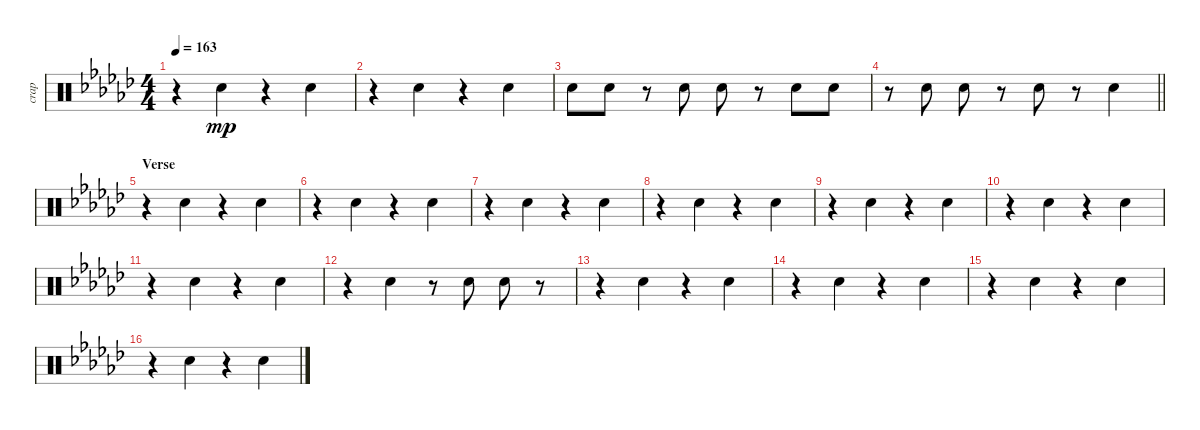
\track ("crap" "crap") {mute instrument percussion}
\staff {score}
\articulation defaults
\ts (4 4)
\tempo 163
\clef neutral
\ks gb
r.4{dy mp} "Hand Clap (hit)".4 r.4 "Hand Clap (hit)".4 |
r.4 "Hand Clap (hit)".4 r.4 "Hand Clap (hit)".4 |
"Hand Clap (hit)".8 "Hand Clap (hit)".8 r.8 "Hand Clap (hit)".8 "Hand Clap (hit)".8 r.8 "Hand Clap (hit)".8 "Hand Clap (hit)".8 |
\barLineRight lightlight
r.8 "Hand Clap (hit)".8 "Hand Clap (hit)".8 r.8 "Hand Clap (hit)".8 r.8 "Hand Clap (hit)".4 |
\section ("" "Verse")
r.4 "Hand Clap (hit)".4 r.4 "Hand Clap (hit)".4 |
r.4 "Hand Clap (hit)".4 r.4 "Hand Clap (hit)".4 |
r.4 "Hand Clap (hit)".4 r.4 "Hand Clap (hit)".4 |
r.4 "Hand Clap (hit)".4 r.4 "Hand Clap (hit)".4 |
r.4 "Hand Clap (hit)".4 r.4 "Hand Clap (hit)".4 |
r.4 "Hand Clap (hit)".4 r.4 "Hand Clap (hit)".4 |
r.4 "Hand Clap (hit)".4 r.4 "Hand Clap (hit)".4 |
r.4 "Hand Clap (hit)".4 r.8 "Hand Clap (hit)".8 "Hand Clap (hit)".8 r.8 |
r.4 "Hand Clap (hit)".4 r.4 "Hand Clap (hit)".4 |
r.4 "Hand Clap (hit)".4 r.4 "Hand Clap (hit)".4 |
r.4 "Hand Clap (hit)".4 r.4 "Hand Clap (hit)".4 |
r.4 "Hand Clap (hit)".4 r.4 "Hand Clap (hit)".4
